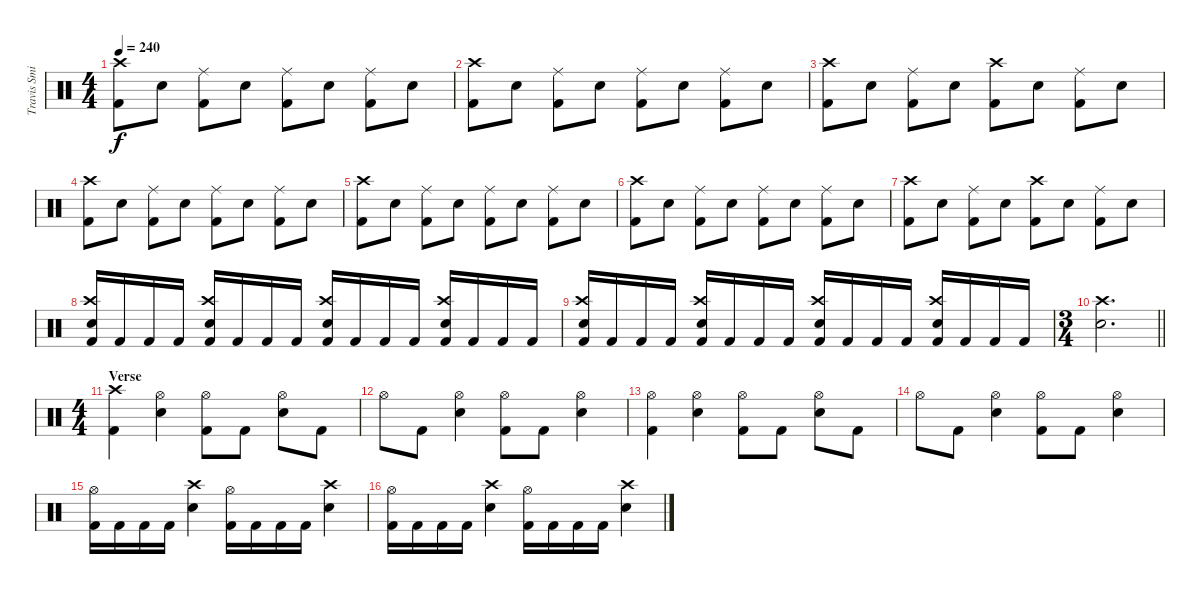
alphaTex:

\track ("Travis Smith" "Travis Smi") {instrument percussion}
\staff {score}
\articulation defaults
\ts (4 4)
\tempo 240
\clef neutral
\ks c
("Kick (hit) 2" "Crash high (hit)").8{dy f} "Snare (hit) 2".8 ("Kick (hit) 2" "Ride (middle)").8 "Snare (hit) 2".8 ("Kick (hit) 2" "Ride (middle)").8 "Snare (hit) 2".8 ("Kick (hit) 2" "Ride (middle)").8 "Snare (hit) 2".8 |
("Kick (hit) 2" "Crash high (hit)").8 "Snare (hit) 2".8 ("Kick (hit) 2" "Ride (middle)").8 "Snare (hit) 2".8 ("Kick (hit) 2" "Ride (middle)").8 "Snare (hit) 2".8 ("Kick (hit) 2" "Ride (middle)").8 "Snare (hit) 2".8 |
("Kick (hit) 2" "Crash high (hit)").8 "Snare (hit) 2".8 ("Kick (hit) 2" "Ride (middle)").8 "Snare (hit) 2".8 ("Kick (hit) 2" "Crash high (hit)").8 "Snare (hit) 2".8 ("Kick (hit) 2" "Ride (middle)").8 "Snare (hit) 2".8 |
("Kick (hit) 2" "Crash high (hit)").8 "Snare (hit) 2".8 ("Kick (hit) 2" "Ride (middle)").8 "Snare (hit) 2".8 ("Kick (hit) 2" "Ride (middle)").8 "Snare (hit) 2".8 ("Kick (hit) 2" "Ride (middle)").8 "Snare (hit) 2".8 |
("Kick (hit) 2" "Crash high (hit)").8 "Snare (hit) 2".8 ("Kick (hit) 2" "Ride (middle)").8 "Snare (hit) 2".8 ("Kick (hit) 2" "Ride (middle)").8 "Snare (hit) 2".8 ("Kick (hit) 2" "Ride (middle)").8 "Snare (hit) 2".8 |
("Kick (hit) 2" "Crash high (hit)").8 "Snare (hit) 2".8 ("Kick (hit) 2" "Ride (middle)").8 "Snare (hit) 2".8 ("Kick (hit) 2" "Ride (middle)").8 "Snare (hit) 2".8 ("Kick (hit) 2" "Ride (middle)").8 "Snare (hit) 2".8 |
("Kick (hit) 2" "Crash high (hit)").8 "Snare (hit) 2".8 ("Kick (hit) 2" "Ride (middle)").8 "Snare (hit) 2".8 ("Kick (hit) 2" "Crash high (hit)").8 "Snare (hit) 2".8 ("Kick (hit) 2" "Ride (middle)").8 "Snare (hit) 2".8 |
("Kick (hit) 2" "Snare (hit) 2" "Crash high (hit)").16 "Kick (hit) 2".16 "Kick (hit) 2".16 "Kick (hit) 2".16 ("Kick (hit) 2" "Snare (hit) 2" "Crash high (hit)").16 "Kick (hit) 2".16 "Kick (hit) 2".16 "Kick (hit) 2".16 ("Kick (hit) 2" "Snare (hit) 2" "Crash high (hit)").16 "Kick (hit) 2".16 "Kick (hit) 2".16 "Kick (hit) 2".16 ("Kick (hit) 2" "Snare (hit) 2" "Crash high (hit)").16 "Kick (hit) 2".16 "Kick (hit) 2".16 "Kick (hit) 2".16 |
("Kick (hit) 2" "Snare (hit) 2" "Crash high (hit)").16 "Kick (hit) 2".16 "Kick (hit) 2".16 "Kick (hit) 2".16 ("Kick (hit) 2" "Snare (hit) 2" "Crash high (hit)").16 "Kick (hit) 2".16 "Kick (hit) 2".16 "Kick (hit) 2".16 ("Kick (hit) 2" "Snare (hit) 2" "Crash high (hit)").16 "Kick (hit) 2".16 "Kick (hit) 2".16 "Kick (hit) 2".16 ("Kick (hit) 2" "Snare (hit) 2" "Crash high (hit)").16 "Kick (hit) 2".16 "Kick (hit) 2".16 "Kick (hit) 2".16 |
\ts (3 4)
\barLineRight lightlight
("Snare (hit) 2" "Crash high (hit)").2{d} |
\ts (4 4)
\section ("" "Verse")
("Kick (hit) 2" "Crash high (hit)").4 ("Snare (hit) 2" "Hi-Hat (open)").4 ("Kick (hit) 2" "Hi-Hat (open)").8 "Kick (hit) 2".8 ("Snare (hit) 2" "Hi-Hat (open)").8 "Kick (hit) 2".8 |
"Hi-Hat (open)".8 "Kick (hit) 2".8 ("Snare (hit) 2" "Hi-Hat (open)").4 ("Kick (hit) 2" "Hi-Hat (open)").8 "Kick (hit) 2".8 ("Snare (hit) 2" "Hi-Hat (open)").4 |
("Kick (hit) 2" "Hi-Hat (open)").4 ("Snare (hit) 2" "Hi-Hat (open)").4 ("Kick (hit) 2" "Hi-Hat (open)").8 "Kick (hit) 2".8 ("Snare (hit) 2" "Hi-Hat (open)").8 "Kick (hit) 2".8 |
"Hi-Hat (open)".8 "Kick (hit) 2".8 ("Snare (hit) 2" "Hi-Hat (open)").4 ("Kick (hit) 2" "Hi-Hat (open)").8 "Kick (hit) 2".8 ("Snare (hit) 2" "Hi-Hat (open)").4 |
("Kick (hit) 2" "Hi-Hat (open)").16 "Kick (hit) 2".16 "Kick (hit) 2".16 "Kick (hit) 2".16 ("Snare (hit) 2" "Crash high (hit)").4 ("Kick (hit) 2" "Hi-Hat (open)").16 "Kick (hit) 2".16 "Kick (hit) 2".16 "Kick (hit) 2".16 ("Snare (hit) 2" "Crash high (hit)").4 |
("Kick (hit) 2" "Hi-Hat (open)").16 "Kick (hit) 2".16 "Kick (hit) 2".16 "Kick (hit) 2".16 ("Snare (hit) 2" "Crash high (hit)").4 ("Kick (hit) 2" "Hi-Hat (open)").16 "Kick (hit) 2".16 "Kick (hit) 2".16 "Kick (hit) 2".16 ("Snare (hit) 2" "Crash high (hit)").4
